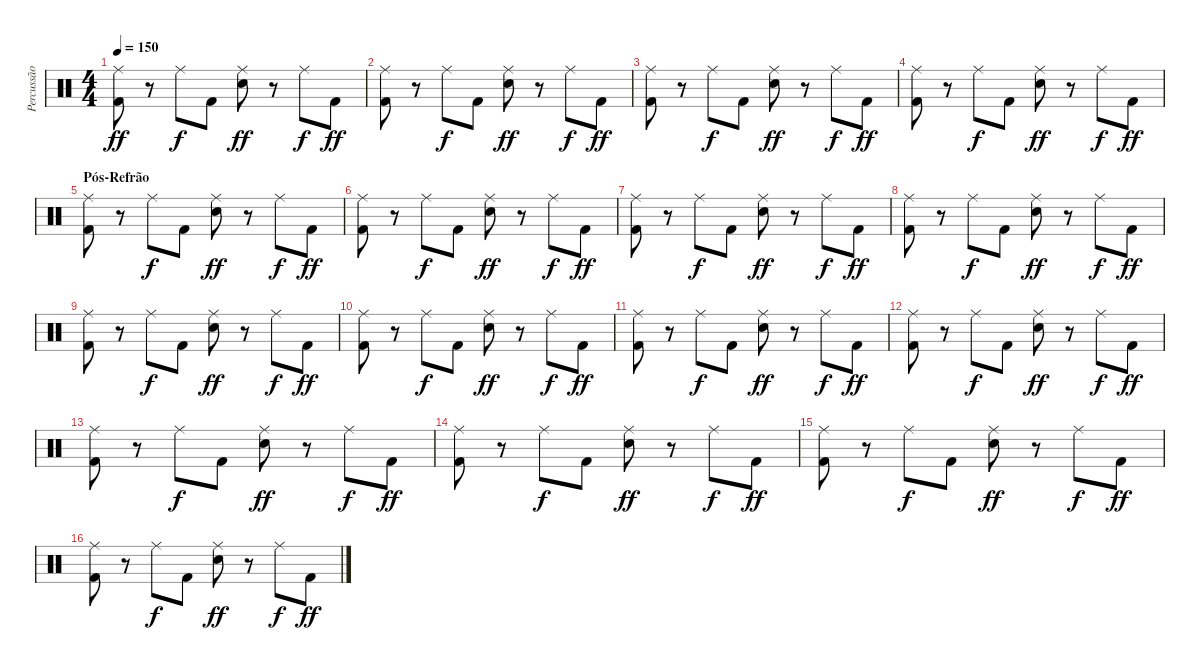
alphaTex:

\track ("Percussão" "Percussão") {instrument percussion}
\staff {score}
\articulation defaults
\ts (4 4)
\tempo 150
\clef neutral
\ks c
("Kick (hit) 2" "Ride (middle)").8{dy ff} r.8 "Ride (middle)".8{dy f} "Kick (hit) 2".8 ("Electric Snare (hit)" "Ride (middle)").8{dy ff} r.8 "Ride (middle)".8{dy f} "Kick (hit) 2".8{dy ff} |
("Kick (hit) 2" "Ride (middle)").8 r.8 "Ride (middle)".8{dy f} "Kick (hit) 2".8 ("Electric Snare (hit)" "Ride (middle)").8{dy ff} r.8 "Ride (middle)".8{dy f} "Kick (hit) 2".8{dy ff} |
("Kick (hit) 2" "Ride (middle)").8 r.8 "Ride (middle)".8{dy f} "Kick (hit) 2".8 ("Electric Snare (hit)" "Ride (middle)").8{dy ff} r.8 "Ride (middle)".8{dy f} "Kick (hit) 2".8{dy ff} |
("Kick (hit) 2" "Ride (middle)").8 r.8 "Ride (middle)".8{dy f} "Kick (hit) 2".8 ("Electric Snare (hit)" "Ride (middle)").8{dy ff} r.8 "Ride (middle)".8{dy f} "Kick (hit) 2".8{dy ff} |
\section ("" "Pós-Refrão")
("Kick (hit) 2" "Ride (middle)").8 r.8 "Ride (middle)".8{dy f} "Kick (hit) 2".8 ("Electric Snare (hit)" "Ride (middle)").8{dy ff} r.8 "Ride (middle)".8{dy f} "Kick (hit) 2".8{dy ff} |
("Kick (hit) 2" "Ride (middle)").8 r.8 "Ride (middle)".8{dy f} "Kick (hit) 2".8 ("Electric Snare (hit)" "Ride (middle)").8{dy ff} r.8 "Ride (middle)".8{dy f} "Kick (hit) 2".8{dy ff} |
("Kick (hit) 2" "Ride (middle)").8 r.8 "Ride (middle)".8{dy f} "Kick (hit) 2".8 ("Electric Snare (hit)" "Ride (middle)").8{dy ff} r.8 "Ride (middle)".8{dy f} "Kick (hit) 2".8{dy ff} |
("Kick (hit) 2" "Ride (middle)").8 r.8 "Ride (middle)".8{dy f} "Kick (hit) 2".8 ("Electric Snare (hit)" "Ride (middle)").8{dy ff} r.8 "Ride (middle)".8{dy f} "Kick (hit) 2".8{dy ff} |
("Kick (hit) 2" "Ride (middle)").8 r.8 "Ride (middle)".8{dy f} "Kick (hit) 2".8 ("Electric Snare (hit)" "Ride (middle)").8{dy ff} r.8 "Ride (middle)".8{dy f} "Kick (hit) 2".8{dy ff} |
("Kick (hit) 2" "Ride (middle)").8 r.8 "Ride (middle)".8{dy f} "Kick (hit) 2".8 ("Electric Snare (hit)" "Ride (middle)").8{dy ff} r.8 "Ride (middle)".8{dy f} "Kick (hit) 2".8{dy ff} |
("Kick (hit) 2" "Ride (middle)").8 r.8 "Ride (middle)".8{dy f} "Kick (hit) 2".8 ("Electric Snare (hit)" "Ride (middle)").8{dy ff} r.8 "Ride (middle)".8{dy f} "Kick (hit) 2".8{dy ff} |
("Kick (hit) 2" "Ride (middle)").8 r.8 "Ride (middle)".8{dy f} "Kick (hit) 2".8 ("Electric Snare (hit)" "Ride (middle)").8{dy ff} r.8 "Ride (middle)".8{dy f} "Kick (hit) 2".8{dy ff} |
("Kick (hit) 2" "Ride (middle)").8 r.8 "Ride (middle)".8{dy f} "Kick (hit) 2".8 ("Electric Snare (hit)" "Ride (middle)").8{dy ff} r.8 "Ride (middle)".8{dy f} "Kick (hit) 2".8{dy ff} |
("Kick (hit) 2" "Ride (middle)").8 r.8 "Ride (middle)".8{dy f} "Kick (hit) 2".8 ("Electric Snare (hit)" "Ride (middle)").8{dy ff} r.8 "Ride (middle)".8{dy f} "Kick (hit) 2".8{dy ff} |
("Kick (hit) 2" "Ride (middle)").8 r.8 "Ride (middle)".8{dy f} "Kick (hit) 2".8 ("Electric Snare (hit)" "Ride (middle)").8{dy ff} r.8 "Ride (middle)".8{dy f} "Kick (hit) 2".8{dy ff} |
("Kick (hit) 2" "Ride (middle)").8 r.8 "Ride (middle)".8{dy f} "Kick (hit) 2".8 ("Electric Snare (hit)" "Ride (middle)").8{dy ff} r.8 "Ride (middle)".8{dy f} "Kick (hit) 2".8{dy ff}
